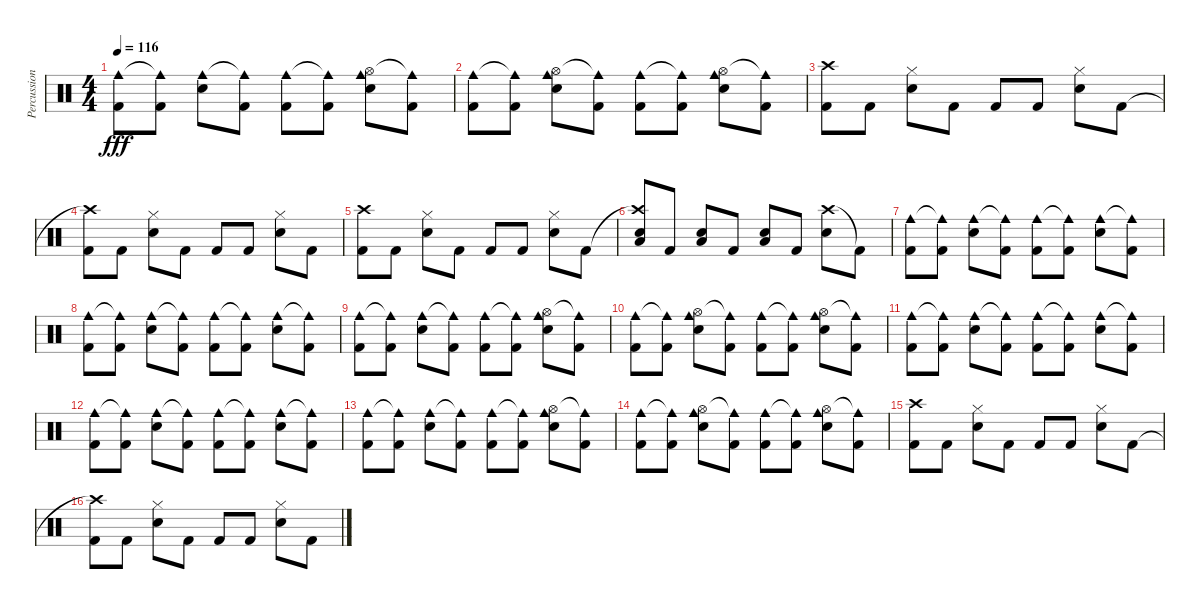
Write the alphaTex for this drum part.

\track ("Percussion" "Percussion") {instrument percussion}
\staff {score}
\articulation defaults
\ts (4 4)
\tempo 116
\clef neutral
\ks c
("Cowbell medium (hit)" "Kick (hit) 2").8{dy fff} ("Cowbell medium (hit)"{t} "Kick (hit) 2").8 ("Cowbell medium (hit)" "Electric Snare (hit)").8 ("Cowbell medium (hit)"{t} "Kick (hit) 2").8 ("Cowbell medium (hit)" "Kick (hit) 2").8 ("Cowbell medium (hit)"{t} "Kick (hit) 2").8 ("Hi-Hat (open)" "Cowbell medium (hit)" "Electric Snare (hit)").8 ("Cowbell medium (hit)"{t} "Kick (hit) 2").8 |
("Cowbell medium (hit)" "Kick (hit) 2").8 ("Cowbell medium (hit)"{t} "Kick (hit) 2").8 ("Hi-Hat (open)" "Cowbell medium (hit)" "Electric Snare (hit)").8 ("Cowbell medium (hit)"{t} "Kick (hit) 2").8 ("Cowbell medium (hit)" "Kick (hit) 2").8 ("Cowbell medium (hit)"{t} "Kick (hit) 2").8 ("Hi-Hat (open)" "Cowbell medium (hit)" "Electric Snare (hit)").8 ("Cowbell medium (hit)"{t} "Kick (hit) 2").8 |
("Crash high (hit)" "Kick (hit) 2").8 "Kick (hit) 2".8 ("Hi-Hat (closed)" "Electric Snare (hit)").8 "Kick (hit) 2".8 "Kick (hit) 2".8 "Kick (hit) 2".8 ("Hi-Hat (closed)" "Electric Snare (hit)").8 "Kick (hit) 2".8 |
("Crash high (hit)"{t} "Kick (hit) 2").8 "Kick (hit) 2".8 ("Hi-Hat (closed)" "Electric Snare (hit)").8 "Kick (hit) 2".8 "Kick (hit) 2".8 "Kick (hit) 2".8 ("Hi-Hat (closed)" "Electric Snare (hit)").8 "Kick (hit) 2".8 |
("Crash high (hit)" "Kick (hit) 2").8 "Kick (hit) 2".8 ("Hi-Hat (closed)" "Electric Snare (hit)").8 "Kick (hit) 2".8 "Kick (hit) 2".8 "Kick (hit) 2".8 ("Hi-Hat (closed)" "Electric Snare (hit)").8 "Kick (hit) 2".8 |
("Crash high (hit)"{t} "Electric Snare (hit)" "Low Floor Tom (hit)").8 "Kick (hit) 2".8 ("Electric Snare (hit)" "Low Floor Tom (hit)").8 "Kick (hit) 2".8 ("Electric Snare (hit)" "Low Floor Tom (hit)").8 "Kick (hit) 2".8 ("Crash high (hit)" "Electric Snare (hit)").8 "Kick (hit) 2"{t}.8 |
("Cowbell medium (hit)" "Kick (hit) 2").8 ("Cowbell medium (hit)"{t} "Kick (hit) 2").8 ("Cowbell medium (hit)" "Electric Snare (hit)").8 ("Cowbell medium (hit)"{t} "Kick (hit) 2").8 ("Cowbell medium (hit)" "Kick (hit) 2").8 ("Cowbell medium (hit)"{t} "Kick (hit) 2").8 ("Cowbell medium (hit)" "Electric Snare (hit)").8 ("Cowbell medium (hit)"{t} "Kick (hit) 2").8 |
("Cowbell medium (hit)" "Kick (hit) 2").8 ("Cowbell medium (hit)"{t} "Kick (hit) 2").8 ("Cowbell medium (hit)" "Electric Snare (hit)").8 ("Cowbell medium (hit)"{t} "Kick (hit) 2").8 ("Cowbell medium (hit)" "Kick (hit) 2").8 ("Cowbell medium (hit)"{t} "Kick (hit) 2").8 ("Cowbell medium (hit)" "Electric Snare (hit)").8 ("Cowbell medium (hit)"{t} "Kick (hit) 2").8 |
("Cowbell medium (hit)" "Kick (hit) 2").8 ("Cowbell medium (hit)"{t} "Kick (hit) 2").8 ("Cowbell medium (hit)" "Electric Snare (hit)").8 ("Cowbell medium (hit)"{t} "Kick (hit) 2").8 ("Cowbell medium (hit)" "Kick (hit) 2").8 ("Cowbell medium (hit)"{t} "Kick (hit) 2").8 ("Hi-Hat (open)" "Cowbell medium (hit)" "Electric Snare (hit)").8 ("Cowbell medium (hit)"{t} "Kick (hit) 2").8 |
("Cowbell medium (hit)" "Kick (hit) 2").8 ("Cowbell medium (hit)"{t} "Kick (hit) 2").8 ("Hi-Hat (open)" "Cowbell medium (hit)" "Electric Snare (hit)").8 ("Cowbell medium (hit)"{t} "Kick (hit) 2").8 ("Cowbell medium (hit)" "Kick (hit) 2").8 ("Cowbell medium (hit)"{t} "Kick (hit) 2").8 ("Hi-Hat (open)" "Cowbell medium (hit)" "Electric Snare (hit)").8 ("Cowbell medium (hit)"{t} "Kick (hit) 2").8 |
("Cowbell medium (hit)" "Kick (hit) 2").8 ("Cowbell medium (hit)"{t} "Kick (hit) 2").8 ("Cowbell medium (hit)" "Electric Snare (hit)").8 ("Cowbell medium (hit)"{t} "Kick (hit) 2").8 ("Cowbell medium (hit)" "Kick (hit) 2").8 ("Cowbell medium (hit)"{t} "Kick (hit) 2").8 ("Cowbell medium (hit)" "Electric Snare (hit)").8 ("Cowbell medium (hit)"{t} "Kick (hit) 2").8 |
("Cowbell medium (hit)" "Kick (hit) 2").8 ("Cowbell medium (hit)"{t} "Kick (hit) 2").8 ("Cowbell medium (hit)" "Electric Snare (hit)").8 ("Cowbell medium (hit)"{t} "Kick (hit) 2").8 ("Cowbell medium (hit)" "Kick (hit) 2").8 ("Cowbell medium (hit)"{t} "Kick (hit) 2").8 ("Cowbell medium (hit)" "Electric Snare (hit)").8 ("Cowbell medium (hit)"{t} "Kick (hit) 2").8 |
("Cowbell medium (hit)" "Kick (hit) 2").8 ("Cowbell medium (hit)"{t} "Kick (hit) 2").8 ("Cowbell medium (hit)" "Electric Snare (hit)").8 ("Cowbell medium (hit)"{t} "Kick (hit) 2").8 ("Cowbell medium (hit)" "Kick (hit) 2").8 ("Cowbell medium (hit)"{t} "Kick (hit) 2").8 ("Hi-Hat (open)" "Cowbell medium (hit)" "Electric Snare (hit)").8 ("Cowbell medium (hit)"{t} "Kick (hit) 2").8 |
("Cowbell medium (hit)" "Kick (hit) 2").8 ("Cowbell medium (hit)"{t} "Kick (hit) 2").8 ("Hi-Hat (open)" "Cowbell medium (hit)" "Electric Snare (hit)").8 ("Cowbell medium (hit)"{t} "Kick (hit) 2").8 ("Cowbell medium (hit)" "Kick (hit) 2").8 ("Cowbell medium (hit)"{t} "Kick (hit) 2").8 ("Hi-Hat (open)" "Cowbell medium (hit)" "Electric Snare (hit)").8 ("Cowbell medium (hit)"{t} "Kick (hit) 2").8 |
("Crash high (hit)" "Kick (hit) 2").8 "Kick (hit) 2".8 ("Hi-Hat (closed)" "Electric Snare (hit)").8 "Kick (hit) 2".8 "Kick (hit) 2".8 "Kick (hit) 2".8 ("Hi-Hat (closed)" "Electric Snare (hit)").8 "Kick (hit) 2".8 |
("Crash high (hit)"{t} "Kick (hit) 2").8 "Kick (hit) 2".8 ("Hi-Hat (closed)" "Electric Snare (hit)").8 "Kick (hit) 2".8 "Kick (hit) 2".8 "Kick (hit) 2".8 ("Hi-Hat (closed)" "Electric Snare (hit)").8 "Kick (hit) 2".8
